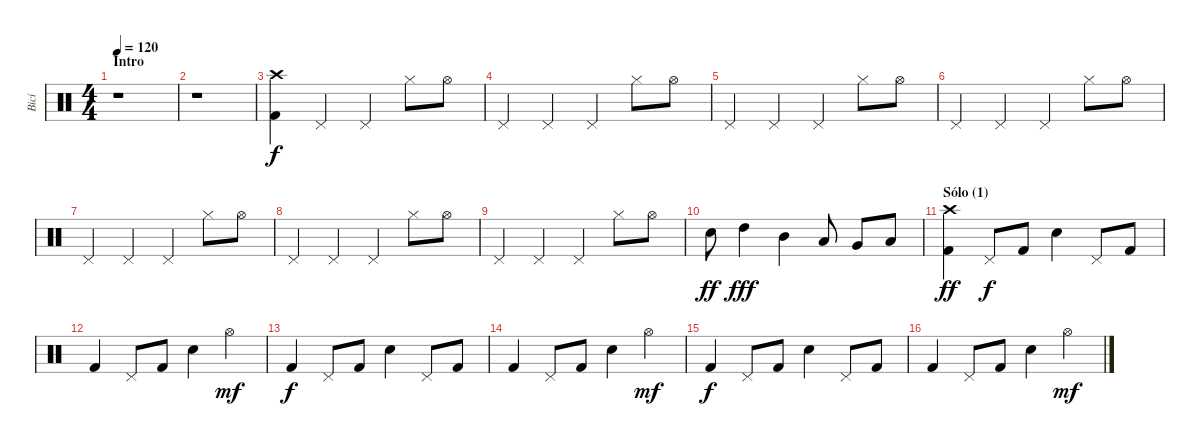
\track ("Bicí" "Bicí") {instrument percussion}
\staff {score}
\articulation defaults
\ts (4 4)
\section ("" "Intro")
\tempo 120
\clef neutral
\ks c
r.1{dy f} |
r.1 |
("Crash high (hit)" "Kick (hit) 2").4 "Pedal Hi-Hat (hit)".4 "Pedal Hi-Hat (hit)".4 "Hi-Hat (closed)".8 "Hi-Hat (open)".8 |
"Pedal Hi-Hat (hit)".4 "Pedal Hi-Hat (hit)".4 "Pedal Hi-Hat (hit)".4 "Hi-Hat (closed)".8 "Hi-Hat (open)".8 |
"Pedal Hi-Hat (hit)".4 "Pedal Hi-Hat (hit)".4 "Pedal Hi-Hat (hit)".4 "Hi-Hat (closed)".8 "Hi-Hat (open)".8 |
"Pedal Hi-Hat (hit)".4 "Pedal Hi-Hat (hit)".4 "Pedal Hi-Hat (hit)".4 "Hi-Hat (closed)".8 "Hi-Hat (open)".8 |
"Pedal Hi-Hat (hit)".4 "Pedal Hi-Hat (hit)".4 "Pedal Hi-Hat (hit)".4 "Hi-Hat (closed)".8 "Hi-Hat (open)".8 |
"Pedal Hi-Hat (hit)".4 "Pedal Hi-Hat (hit)".4 "Pedal Hi-Hat (hit)".4 "Hi-Hat (closed)".8 "Hi-Hat (open)".8 |
"Pedal Hi-Hat (hit)".4 "Pedal Hi-Hat (hit)".4 "Pedal Hi-Hat (hit)".4 "Hi-Hat (closed)".8 "Hi-Hat (open)".8 |
"Snare (hit) 2".8{dy ff} "High Tom (hit)".4{dy fff} "Mid Tom (hit)".4 "Low Tom (hit)".8 "Very Low Tom (hit)".8 "Low Floor Tom (hit)".8 |
\section ("" "Sólo (1)")
("Crash high (hit)" "Kick (hit) 2").4{dy ff} "Pedal Hi-Hat (hit)".8{dy f} "Kick (hit) 2".8 "Snare (hit) 2".4 "Pedal Hi-Hat (hit)".8 "Kick (hit) 2".8 |
"Kick (hit) 2".4 "Pedal Hi-Hat (hit)".8 "Kick (hit) 2".8 "Snare (hit) 2".4 "Hi-Hat (open)".4{dy mf} |
"Kick (hit) 2".4{dy f} "Pedal Hi-Hat (hit)".8 "Kick (hit) 2".8 "Snare (hit) 2".4 "Pedal Hi-Hat (hit)".8 "Kick (hit) 2".8 |
"Kick (hit) 2".4 "Pedal Hi-Hat (hit)".8 "Kick (hit) 2".8 "Snare (hit) 2".4 "Hi-Hat (open)".4{dy mf} |
"Kick (hit) 2".4{dy f} "Pedal Hi-Hat (hit)".8 "Kick (hit) 2".8 "Snare (hit) 2".4 "Pedal Hi-Hat (hit)".8 "Kick (hit) 2".8 |
"Kick (hit) 2".4 "Pedal Hi-Hat (hit)".8 "Kick (hit) 2".8 "Snare (hit) 2".4 "Hi-Hat (open)".4{dy mf}
